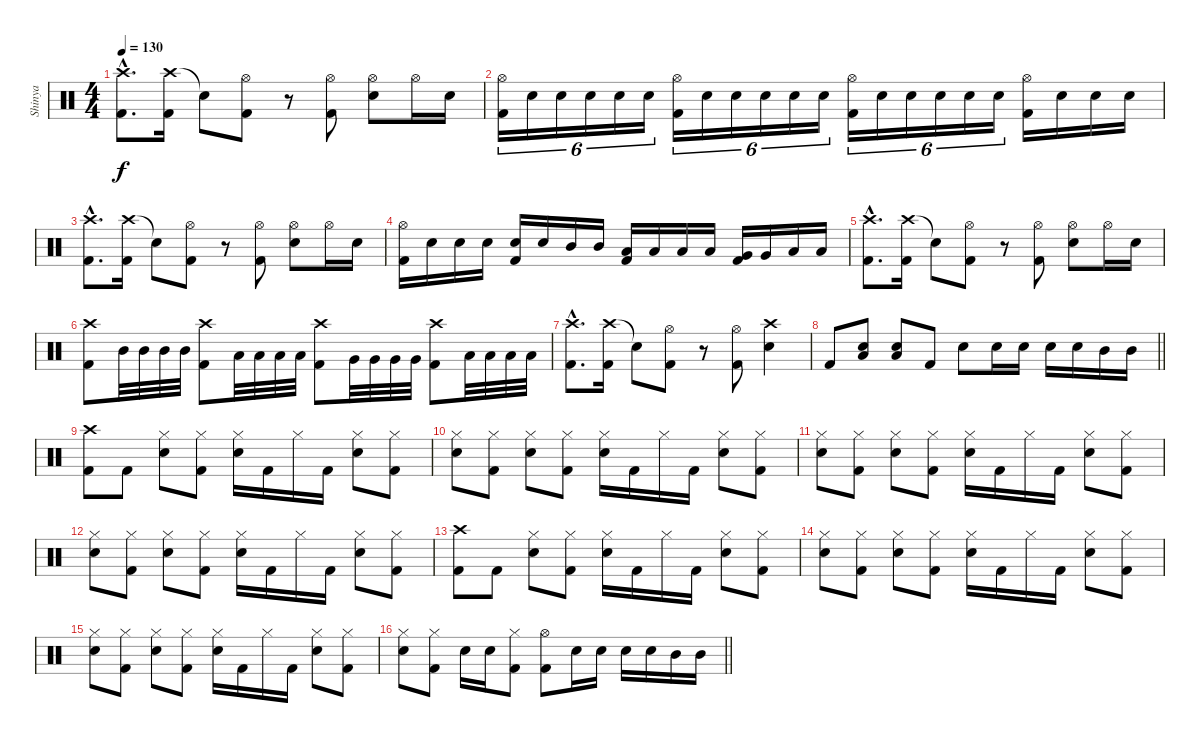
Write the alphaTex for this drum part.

\track ("Shinya" "Shinya") {instrument percussion}
\staff {score}
\articulation defaults
\ts (4 4)
\tempo 130
\clef neutral
\ks c
("Crash high (hit)"{hac} "Kick (hit) 2"{hac}).8{d dy f} ("Crash high (hit)" "Kick (hit) 2").16 "Snare (hit)"{t}.8 ("Hi-Hat (open)" "Kick (hit) 2").8 r.8 ("Hi-Hat (open)" "Kick (hit) 2").8 ("Hi-Hat (open)" "Electric Snare (hit)").8 "Hi-Hat (open)".16 "Electric Snare (hit)".16 |
("Hi-Hat (open)" "Kick (hit) 2").16{tu (6 4)} "Electric Snare (hit)".16{tu (6 4)} "Electric Snare (hit)".16{tu (6 4)} "Electric Snare (hit)".16{tu (6 4)} "Electric Snare (hit)".16{tu (6 4)} "Electric Snare (hit)".16{tu (6 4)} ("Hi-Hat (open)" "Kick (hit) 2").16{tu (6 4)} "Electric Snare (hit)".16{tu (6 4)} "Electric Snare (hit)".16{tu (6 4)} "Electric Snare (hit)".16{tu (6 4)} "Electric Snare (hit)".16{tu (6 4)} "Electric Snare (hit)".16{tu (6 4)} ("Hi-Hat (open)" "Kick (hit) 2").16{tu (6 4)} "Electric Snare (hit)".16{tu (6 4)} "Electric Snare (hit)".16{tu (6 4)} "Electric Snare (hit)".16{tu (6 4)} "Electric Snare (hit)".16{tu (6 4)} "Electric Snare (hit)".16{tu (6 4)} ("Hi-Hat (open)" "Kick (hit) 2").16 "Electric Snare (hit)".16 "Electric Snare (hit)".16 "Electric Snare (hit)".16 |
("Crash high (hit)"{hac} "Kick (hit) 2"{hac}).8{d} ("Crash high (hit)" "Kick (hit) 2").16 "Snare (hit)"{t}.8 ("Hi-Hat (open)" "Kick (hit) 2").8 r.8 ("Hi-Hat (open)" "Kick (hit) 2").8 ("Hi-Hat (open)" "Electric Snare (hit)").8 "Hi-Hat (open)".16 "Electric Snare (hit)".16 |
("Hi-Hat (open)" "Kick (hit) 2").16 "Electric Snare (hit)".16 "Electric Snare (hit)".16 "Electric Snare (hit)".16 ("Electric Snare (hit)" "Kick (hit) 2").16 "Electric Snare (hit)".16 "Mid Tom (hit)".16 "Mid Tom (hit)".16 ("Low Tom (hit)" "Kick (hit) 2").16 "Low Tom (hit)".16 "Low Tom (hit)".16 "Low Tom (hit)".16 ("Very Low Tom (hit)" "Kick (hit) 2").16 "Very Low Tom (hit)".16 "Low Floor Tom (hit)".16 "Low Floor Tom (hit)".16 |
("Crash high (hit)"{hac} "Kick (hit) 2"{hac}).8{d} ("Crash high (hit)" "Kick (hit) 2").16 "Snare (hit)"{t}.8 ("Hi-Hat (open)" "Kick (hit) 2").8 r.8 ("Hi-Hat (open)" "Kick (hit) 2").8 ("Hi-Hat (open)" "Electric Snare (hit)").8 "Hi-Hat (open)".16 "Electric Snare (hit)".16 |
("Crash high (hit)" "Kick (hit) 2").8 "Mid Tom (hit)".32 "Mid Tom (hit)".32 "Mid Tom (hit)".32 "Mid Tom (hit)".32 ("Crash high (hit)" "Kick (hit) 2").8 "Low Tom (hit)".32 "Low Tom (hit)".32 "Low Tom (hit)".32 "Low Tom (hit)".32 ("Crash high (hit)" "Kick (hit) 2").8 "Very Low Tom (hit)".32 "Very Low Tom (hit)".32 "Very Low Tom (hit)".32 "Very Low Tom (hit)".32 ("Crash high (hit)" "Kick (hit) 2").8 "Low Floor Tom (hit)".32 "Low Floor Tom (hit)".32 "Low Floor Tom (hit)".32 "Low Floor Tom (hit)".32 |
("Crash high (hit)"{hac} "Kick (hit) 2"{hac}).8{d} ("Crash high (hit)" "Kick (hit) 2").16 "Snare (hit)"{t}.8 ("Hi-Hat (open)" "Kick (hit) 2").8 r.8 ("Hi-Hat (open)" "Kick (hit) 2").8 ("Crash high (hit)" "Electric Snare (hit)").4 |
\barLineRight lightlight "Kick (hit) 2".8
("Low Floor Tom (hit)" "Electric Snare (hit)").8 ("Low Floor Tom (hit)" "Electric Snare (hit)").8 "Kick (hit) 2".8 "Electric Snare (hit)".8 "Electric Snare (hit)".16 "Electric Snare (hit)".16 "Electric Snare (hit)".16 "Electric Snare (hit)".16 "Mid Tom (hit)".16 "Mid Tom (hit)".16 |
("Crash high (hit)" "Kick (hit) 2").8 "Kick (hit) 2".8 ("Hi-Hat (closed)" "Electric Snare (hit)").8 ("Hi-Hat (closed)" "Kick (hit) 2").8 ("Hi-Hat (closed)" "Electric Snare (hit)").16 "Kick (hit) 2".16 "Hi-Hat (closed)".16 "Kick (hit) 2".16 ("Hi-Hat (closed)" "Electric Snare (hit)").8 ("Hi-Hat (closed)" "Kick (hit) 2").8 |
("Hi-Hat (closed)" "Electric Snare (hit)").8 ("Hi-Hat (closed)" "Kick (hit) 2").8 ("Hi-Hat (closed)" "Electric Snare (hit)").8 ("Hi-Hat (closed)" "Kick (hit) 2").8 ("Hi-Hat (closed)" "Electric Snare (hit)").16 "Kick (hit) 2".16 "Hi-Hat (closed)".16 "Kick (hit) 2".16 ("Hi-Hat (closed)" "Electric Snare (hit)").8 ("Hi-Hat (closed)" "Kick (hit) 2").8 |
("Hi-Hat (closed)" "Electric Snare (hit)").8 ("Hi-Hat (closed)" "Kick (hit) 2").8 ("Hi-Hat (closed)" "Electric Snare (hit)").8 ("Hi-Hat (closed)" "Kick (hit) 2").8 ("Hi-Hat (closed)" "Electric Snare (hit)").16 "Kick (hit) 2".16 "Hi-Hat (closed)".16 "Kick (hit) 2".16 ("Hi-Hat (closed)" "Electric Snare (hit)").8 ("Hi-Hat (closed)" "Kick (hit) 2").8 |
("Hi-Hat (closed)" "Electric Snare (hit)").8 ("Hi-Hat (closed)" "Kick (hit) 2").8 ("Hi-Hat (closed)" "Electric Snare (hit)").8 ("Hi-Hat (closed)" "Kick (hit) 2").8 ("Hi-Hat (closed)" "Electric Snare (hit)").16 "Kick (hit) 2".16 "Hi-Hat (closed)".16 "Kick (hit) 2".16 ("Hi-Hat (closed)" "Electric Snare (hit)").8 ("Hi-Hat (closed)" "Kick (hit) 2").8 |
("Crash high (hit)" "Kick (hit) 2").8 "Kick (hit) 2".8 ("Hi-Hat (closed)" "Electric Snare (hit)").8 ("Hi-Hat (closed)" "Kick (hit) 2").8 ("Hi-Hat (closed)" "Electric Snare (hit)").16 "Kick (hit) 2".16 "Hi-Hat (closed)".16 "Kick (hit) 2".16 ("Hi-Hat (closed)" "Electric Snare (hit)").8 ("Hi-Hat (closed)" "Kick (hit) 2").8 |
("Hi-Hat (closed)" "Electric Snare (hit)").8 ("Hi-Hat (closed)" "Kick (hit) 2").8 ("Hi-Hat (closed)" "Electric Snare (hit)").8 ("Hi-Hat (closed)" "Kick (hit) 2").8 ("Hi-Hat (closed)" "Electric Snare (hit)").16 "Kick (hit) 2".16 "Hi-Hat (closed)".16 "Kick (hit) 2".16 ("Hi-Hat (closed)" "Electric Snare (hit)").8 ("Hi-Hat (closed)" "Kick (hit) 2").8 |
("Hi-Hat (closed)" "Electric Snare (hit)").8 ("Hi-Hat (closed)" "Kick (hit) 2").8 ("Hi-Hat (closed)" "Electric Snare (hit)").8 ("Hi-Hat (closed)" "Kick (hit) 2").8 ("Hi-Hat (closed)" "Electric Snare (hit)").16 "Kick (hit) 2".16 "Hi-Hat (closed)".16 "Kick (hit) 2".16 ("Hi-Hat (closed)" "Electric Snare (hit)").8 ("Hi-Hat (closed)" "Kick (hit) 2").8 |
\barLineRight lightlight
("Hi-Hat (closed)" "Electric Snare (hit)").8 ("Hi-Hat (closed)" "Kick (hit) 2").8 "Electric Snare (hit)".16 "Electric Snare (hit)".16 ("Hi-Hat (closed)" "Kick (hit) 2").8 ("Hi-Hat (open)" "Kick (hit) 2").8 "Electric Snare (hit)".16 "Electric Snare (hit)".16 "Electric Snare (hit)".16 "Electric Snare (hit)".16 "Mid Tom (hit)".16 "Mid Tom (hit)".16
